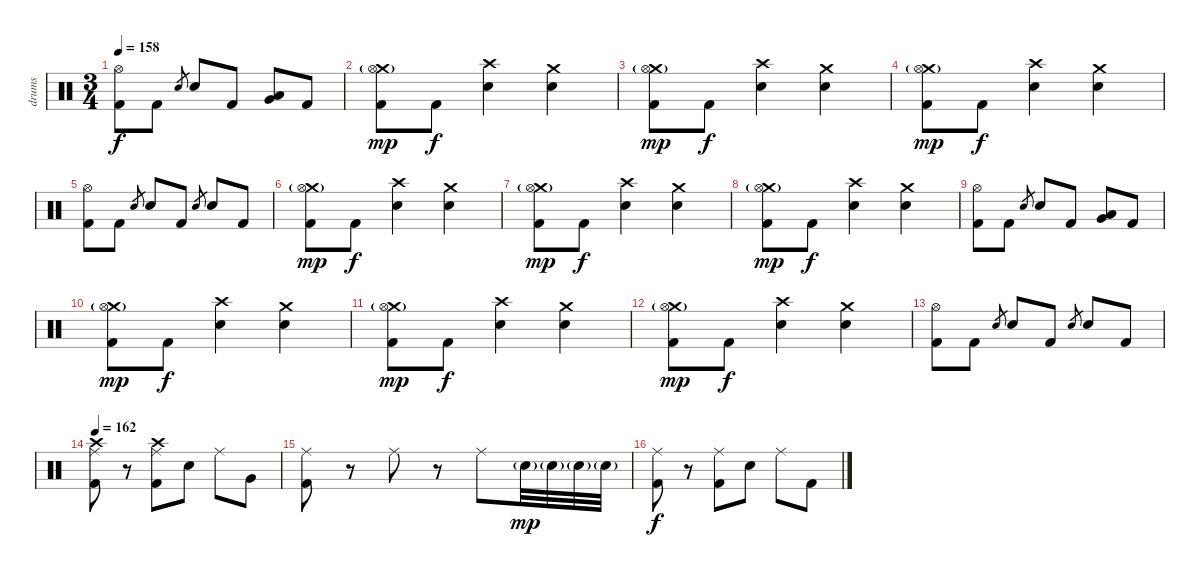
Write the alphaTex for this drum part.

\track ("drums" "drums") {instrument percussion}
\staff {score}
\articulation defaults
\ts (3 4)
\tempo 158
\clef neutral
\ks c
("Hi-Hat (open)" "Kick (hit) 2").8{dy f} "Kick (hit) 2".8 "Snare (hit) 2".8{gr} "Snare (hit) 2".8 "Kick (hit) 2".8 ("Very Low Tom (hit)" "Low Floor Tom (hit)").8 "Kick (hit) 2".8 |
("Crash medium (hit)"{g} "Hi-Hat (open)" "Kick (hit) 2").8{dy mp} "Kick (hit) 2".8{dy f} ("Crash high (hit)" "Snare (hit) 2").4 ("Crash medium (hit)" "Snare (hit) 2").4 |
("Crash medium (hit)"{g} "Hi-Hat (open)" "Kick (hit) 2").8{dy mp} "Kick (hit) 2".8{dy f} ("Crash high (hit)" "Snare (hit) 2").4 ("Crash medium (hit)" "Snare (hit) 2").4 |
("Crash medium (hit)"{g} "Hi-Hat (open)" "Kick (hit) 2").8{dy mp} "Kick (hit) 2".8{dy f} ("Crash high (hit)" "Snare (hit) 2").4 ("Crash medium (hit)" "Snare (hit) 2").4 |
("Hi-Hat (open)" "Kick (hit) 2").8 "Kick (hit) 2".8 "Snare (hit) 2".8{gr} "Snare (hit) 2".8 "Kick (hit) 2".8 "Snare (hit) 2".8{gr} "Snare (hit) 2".8 "Kick (hit) 2".8 |
("Crash medium (hit)"{g} "Hi-Hat (open)" "Kick (hit) 2").8{dy mp} "Kick (hit) 2".8{dy f} ("Crash high (hit)" "Snare (hit) 2").4 ("Crash medium (hit)" "Snare (hit) 2").4 |
("Crash medium (hit)"{g} "Hi-Hat (open)" "Kick (hit) 2").8{dy mp} "Kick (hit) 2".8{dy f} ("Crash high (hit)" "Snare (hit) 2").4 ("Crash medium (hit)" "Snare (hit) 2").4 |
("Crash medium (hit)"{g} "Hi-Hat (open)" "Kick (hit) 2").8{dy mp} "Kick (hit) 2".8{dy f} ("Crash high (hit)" "Snare (hit) 2").4 ("Crash medium (hit)" "Snare (hit) 2").4 |
("Hi-Hat (open)" "Kick (hit) 2").8 "Kick (hit) 2".8 "Snare (hit) 2".8{gr} "Snare (hit) 2".8 "Kick (hit) 2".8 ("Very Low Tom (hit)" "Low Floor Tom (hit)").8 "Kick (hit) 2".8 |
("Crash medium (hit)"{g} "Hi-Hat (open)" "Kick (hit) 2").8{dy mp} "Kick (hit) 2".8{dy f} ("Crash high (hit)" "Snare (hit) 2").4 ("Crash medium (hit)" "Snare (hit) 2").4 |
("Crash medium (hit)"{g} "Hi-Hat (open)" "Kick (hit) 2").8{dy mp} "Kick (hit) 2".8{dy f} ("Crash high (hit)" "Snare (hit) 2").4 ("Crash medium (hit)" "Snare (hit) 2").4 |
("Crash medium (hit)"{g} "Hi-Hat (open)" "Kick (hit) 2").8{dy mp} "Kick (hit) 2".8{dy f} ("Crash high (hit)" "Snare (hit) 2").4 ("Crash medium (hit)" "Snare (hit) 2").4 |
("Hi-Hat (open)" "Kick (hit) 2").8 "Kick (hit) 2".8 "Snare (hit) 2".8{gr} "Snare (hit) 2".8 "Kick (hit) 2".8 "Snare (hit) 2".8{gr} "Snare (hit) 2".8 "Kick (hit) 2".8 |
\tempo 162
("Crash high (hit)" "Ride (middle)" "Kick (hit) 2").8 r.8 ("Crash high (hit)" "Ride (middle)" "Kick (hit) 2").8 "Snare (hit) 2".8 "Ride (middle)".8 "Very Low Tom (hit)".8 |
("Ride (middle)" "Kick (hit) 2").8 r.8 "Ride (middle)".8 r.8 "Ride (middle)".8 "Snare (hit) 2"{g}.32{dy mp} "Snare (hit) 2"{g}.32 "Snare (hit) 2"{g}.32 "Snare (hit) 2"{g}.32 |
("Ride (middle)" "Kick (hit) 2").8{dy f} r.8 ("Ride (middle)" "Kick (hit) 2").8 "Snare (hit) 2".8 "Ride (middle)".8 "Kick (hit) 2".8
